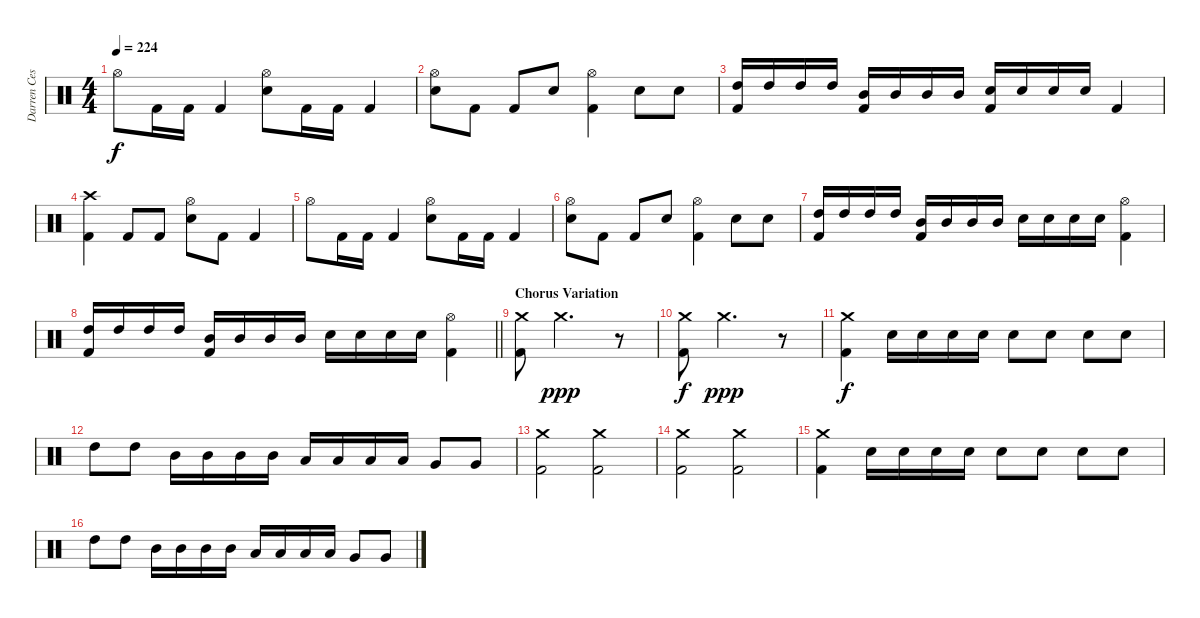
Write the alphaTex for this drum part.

\track ("Darren Cesca" "Darren Ces") {instrument percussion}
\staff {score}
\articulation defaults
\ts (4 4)
\tempo 224
\clef neutral
\ks c "Hi-Hat (open)".8{dy f} "Kick (hit) 2".16 "Kick (hit) 2".16 "Kick (hit) 2".4
("Hi-Hat (open)" "Electric Snare (hit)").8 "Kick (hit) 2".16 "Kick (hit) 2".16 "Kick (hit) 2".4 |
("Hi-Hat (open)" "Electric Snare (hit)").8 "Kick (hit) 2".8 "Kick (hit) 2".8 "Electric Snare (hit)".8 ("Hi-Hat (open)" "Kick (hit) 2").4 "Electric Snare (hit)".8 "Electric Snare (hit)".8 |
("High Tom (hit)" "Kick (hit) 2").16 "High Tom (hit)".16 "High Tom (hit)".16 "High Tom (hit)".16 ("Mid Tom (hit)" "Kick (hit) 2").16 "Mid Tom (hit)".16 "Mid Tom (hit)".16 "Mid Tom (hit)".16 ("Electric Snare (hit)" "Kick (hit) 2").16 "Electric Snare (hit)".16 "Electric Snare (hit)".16 "Electric Snare (hit)".16 "Kick (hit) 2".4 |
("Crash high (hit)" "Kick (hit) 2").4 "Kick (hit) 2".8 "Kick (hit) 2".8 ("Hi-Hat (open)" "Electric Snare (hit)").8 "Kick (hit) 2".8 "Kick (hit) 2".4 |
"Hi-Hat (open)".8 "Kick (hit) 2".16 "Kick (hit) 2".16 "Kick (hit) 2".4 ("Hi-Hat (open)" "Electric Snare (hit)").8 "Kick (hit) 2".16 "Kick (hit) 2".16 "Kick (hit) 2".4 |
("Hi-Hat (open)" "Electric Snare (hit)").8 "Kick (hit) 2".8 "Kick (hit) 2".8 "Electric Snare (hit)".8 ("Hi-Hat (open)" "Kick (hit) 2").4 "Electric Snare (hit)".8 "Electric Snare (hit)".8 |
("High Tom (hit)" "Kick (hit) 2").16 "High Tom (hit)".16 "High Tom (hit)".16 "High Tom (hit)".16 ("Mid Tom (hit)" "Kick (hit) 2").16 "Mid Tom (hit)".16 "Mid Tom (hit)".16 "Mid Tom (hit)".16 "Electric Snare (hit)".16 "Electric Snare (hit)".16 "Electric Snare (hit)".16 "Electric Snare (hit)".16 ("Hi-Hat (open)" "Kick (hit) 2").4 |
\barLineRight lightlight
("High Tom (hit)" "Kick (hit) 2").16 "High Tom (hit)".16 "High Tom (hit)".16 "High Tom (hit)".16 ("Mid Tom (hit)" "Kick (hit) 2").16 "Mid Tom (hit)".16 "Mid Tom (hit)".16 "Mid Tom (hit)".16 "Electric Snare (hit)".16 "Electric Snare (hit)".16 "Electric Snare (hit)".16 "Electric Snare (hit)".16 ("Hi-Hat (open)" "Kick (hit) 2").4 |
\section ("" "Chorus Variation")
("Crash medium (hit)" "Kick (hit) 2").8 "Crash medium (hit)".2{d dy ppp} r.8 |
("Crash medium (hit)" "Kick (hit) 2").8{dy f} "Crash medium (hit)".2{d dy ppp} r.8 |
("Crash medium (hit)" "Kick (hit) 2").4{dy f} "Electric Snare (hit)".16 "Electric Snare (hit)".16 "Electric Snare (hit)".16 "Electric Snare (hit)".16 "Electric Snare (hit)".8 "Electric Snare (hit)".8 "Electric Snare (hit)".8 "Electric Snare (hit)".8 |
"High Tom (hit)".8 "High Tom (hit)".8 "Mid Tom (hit)".16 "Mid Tom (hit)".16 "Mid Tom (hit)".16 "Mid Tom (hit)".16 "Low Tom (hit)".16 "Low Tom (hit)".16 "Low Tom (hit)".16 "Low Tom (hit)".16 "Very Low Tom (hit)".8 "Very Low Tom (hit)".8 |
("Crash medium (hit)" "Kick (hit) 2").2 ("Crash medium (hit)" "Kick (hit) 2").2 |
("Crash medium (hit)" "Kick (hit) 2").2 ("Crash medium (hit)" "Kick (hit) 2").2 |
("Crash medium (hit)" "Kick (hit) 2").4 "Electric Snare (hit)".16 "Electric Snare (hit)".16 "Electric Snare (hit)".16 "Electric Snare (hit)".16 "Electric Snare (hit)".8 "Electric Snare (hit)".8 "Electric Snare (hit)".8 "Electric Snare (hit)".8 |
"High Tom (hit)".8 "High Tom (hit)".8 "Mid Tom (hit)".16 "Mid Tom (hit)".16 "Mid Tom (hit)".16 "Mid Tom (hit)".16 "Low Tom (hit)".16 "Low Tom (hit)".16 "Low Tom (hit)".16 "Low Tom (hit)".16 "Very Low Tom (hit)".8 "Very Low Tom (hit)".8
